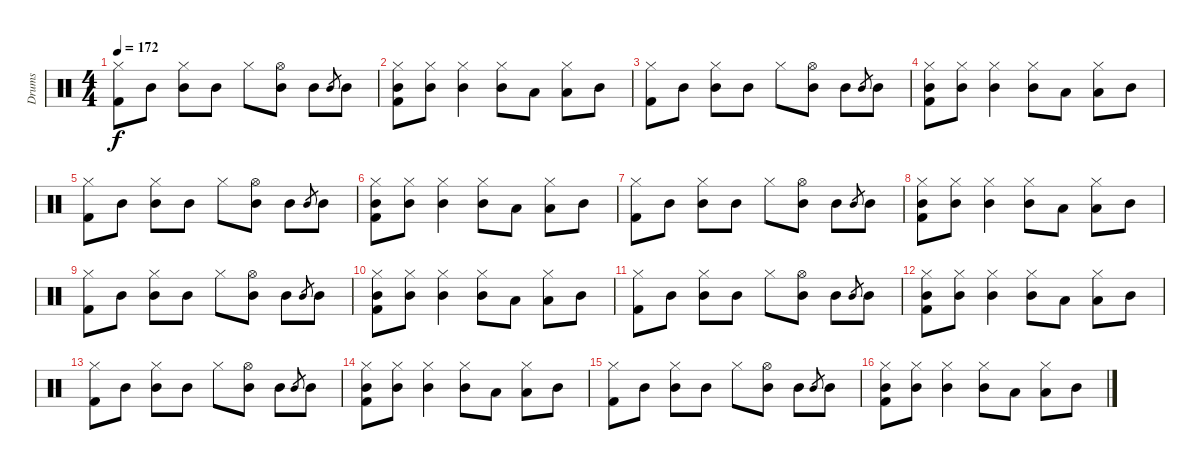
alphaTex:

\track ("Drums" "Drums") {instrument percussion}
\staff {score}
\articulation defaults
\ts (4 4)
\tempo 172
\clef neutral
\ks c
("Hi-Hat (closed)" "Kick (hit) 2").8{dy f} "Mid Tom (hit)".8 ("Hi-Hat (closed)" "Mid Tom (hit)").8 "Mid Tom (hit)".8 "Hi-Hat (closed)".8 ("Hi-Hat (open)" "Mid Tom (hit)").8 "Mid Tom (hit)".8 "Mid Tom (hit)".8{gr} "Mid Tom (hit)".8 |
("Hi-Hat (closed)" "Mid Tom (hit)" "Kick (hit) 2").8 ("Hi-Hat (closed)" "Mid Tom (hit)").8 ("Hi-Hat (closed)" "Mid Tom (hit)").4 ("Hi-Hat (closed)" "Mid Tom (hit)").8 "Low Tom (hit)".8 ("Hi-Hat (closed)" "Low Tom (hit)").8 "Mid Tom (hit)".8 |
("Hi-Hat (closed)" "Kick (hit) 2").8 "Mid Tom (hit)".8 ("Hi-Hat (closed)" "Mid Tom (hit)").8 "Mid Tom (hit)".8 "Hi-Hat (closed)".8 ("Hi-Hat (open)" "Mid Tom (hit)").8 "Mid Tom (hit)".8 "Mid Tom (hit)".8{gr} "Mid Tom (hit)".8 |
("Hi-Hat (closed)" "Mid Tom (hit)" "Kick (hit) 2").8 ("Hi-Hat (closed)" "Mid Tom (hit)").8 ("Hi-Hat (closed)" "Mid Tom (hit)").4 ("Hi-Hat (closed)" "Mid Tom (hit)").8 "Low Tom (hit)".8 ("Hi-Hat (closed)" "Low Tom (hit)").8 "Mid Tom (hit)".8 |
("Hi-Hat (closed)" "Kick (hit) 2").8 "Mid Tom (hit)".8 ("Hi-Hat (closed)" "Mid Tom (hit)").8 "Mid Tom (hit)".8 "Hi-Hat (closed)".8 ("Hi-Hat (open)" "Mid Tom (hit)").8 "Mid Tom (hit)".8 "Mid Tom (hit)".8{gr} "Mid Tom (hit)".8 |
("Hi-Hat (closed)" "Mid Tom (hit)" "Kick (hit) 2").8 ("Hi-Hat (closed)" "Mid Tom (hit)").8 ("Hi-Hat (closed)" "Mid Tom (hit)").4 ("Hi-Hat (closed)" "Mid Tom (hit)").8 "Low Tom (hit)".8 ("Hi-Hat (closed)" "Low Tom (hit)").8 "Mid Tom (hit)".8 |
("Hi-Hat (closed)" "Kick (hit) 2").8 "Mid Tom (hit)".8 ("Hi-Hat (closed)" "Mid Tom (hit)").8 "Mid Tom (hit)".8 "Hi-Hat (closed)".8 ("Hi-Hat (open)" "Mid Tom (hit)").8 "Mid Tom (hit)".8 "Mid Tom (hit)".8{gr} "Mid Tom (hit)".8 |
("Hi-Hat (closed)" "Mid Tom (hit)" "Kick (hit) 2").8 ("Hi-Hat (closed)" "Mid Tom (hit)").8 ("Hi-Hat (closed)" "Mid Tom (hit)").4 ("Hi-Hat (closed)" "Mid Tom (hit)").8 "Low Tom (hit)".8 ("Hi-Hat (closed)" "Low Tom (hit)").8 "Mid Tom (hit)".8 |
("Hi-Hat (closed)" "Kick (hit) 2").8 "Mid Tom (hit)".8 ("Hi-Hat (closed)" "Mid Tom (hit)").8 "Mid Tom (hit)".8 "Hi-Hat (closed)".8 ("Hi-Hat (open)" "Mid Tom (hit)").8 "Mid Tom (hit)".8 "Mid Tom (hit)".8{gr} "Mid Tom (hit)".8 |
("Hi-Hat (closed)" "Mid Tom (hit)" "Kick (hit) 2").8 ("Hi-Hat (closed)" "Mid Tom (hit)").8 ("Hi-Hat (closed)" "Mid Tom (hit)").4 ("Hi-Hat (closed)" "Mid Tom (hit)").8 "Low Tom (hit)".8 ("Hi-Hat (closed)" "Low Tom (hit)").8 "Mid Tom (hit)".8 |
("Hi-Hat (closed)" "Kick (hit) 2").8 "Mid Tom (hit)".8 ("Hi-Hat (closed)" "Mid Tom (hit)").8 "Mid Tom (hit)".8 "Hi-Hat (closed)".8 ("Hi-Hat (open)" "Mid Tom (hit)").8 "Mid Tom (hit)".8 "Mid Tom (hit)".8{gr} "Mid Tom (hit)".8 |
("Hi-Hat (closed)" "Mid Tom (hit)" "Kick (hit) 2").8 ("Hi-Hat (closed)" "Mid Tom (hit)").8 ("Hi-Hat (closed)" "Mid Tom (hit)").4 ("Hi-Hat (closed)" "Mid Tom (hit)").8 "Low Tom (hit)".8 ("Hi-Hat (closed)" "Low Tom (hit)").8 "Mid Tom (hit)".8 |
("Hi-Hat (closed)" "Kick (hit) 2").8 "Mid Tom (hit)".8 ("Hi-Hat (closed)" "Mid Tom (hit)").8 "Mid Tom (hit)".8 "Hi-Hat (closed)".8 ("Hi-Hat (open)" "Mid Tom (hit)").8 "Mid Tom (hit)".8 "Mid Tom (hit)".8{gr} "Mid Tom (hit)".8 |
("Hi-Hat (closed)" "Mid Tom (hit)" "Kick (hit) 2").8 ("Hi-Hat (closed)" "Mid Tom (hit)").8 ("Hi-Hat (closed)" "Mid Tom (hit)").4 ("Hi-Hat (closed)" "Mid Tom (hit)").8 "Low Tom (hit)".8 ("Hi-Hat (closed)" "Low Tom (hit)").8 "Mid Tom (hit)".8 |
("Hi-Hat (closed)" "Kick (hit) 2").8 "Mid Tom (hit)".8 ("Hi-Hat (closed)" "Mid Tom (hit)").8 "Mid Tom (hit)".8 "Hi-Hat (closed)".8 ("Hi-Hat (open)" "Mid Tom (hit)").8 "Mid Tom (hit)".8 "Mid Tom (hit)".8{gr} "Mid Tom (hit)".8 |
("Hi-Hat (closed)" "Mid Tom (hit)" "Kick (hit) 2").8 ("Hi-Hat (closed)" "Mid Tom (hit)").8 ("Hi-Hat (closed)" "Mid Tom (hit)").4 ("Hi-Hat (closed)" "Mid Tom (hit)").8 "Low Tom (hit)".8 ("Hi-Hat (closed)" "Low Tom (hit)").8 "Mid Tom (hit)".8
